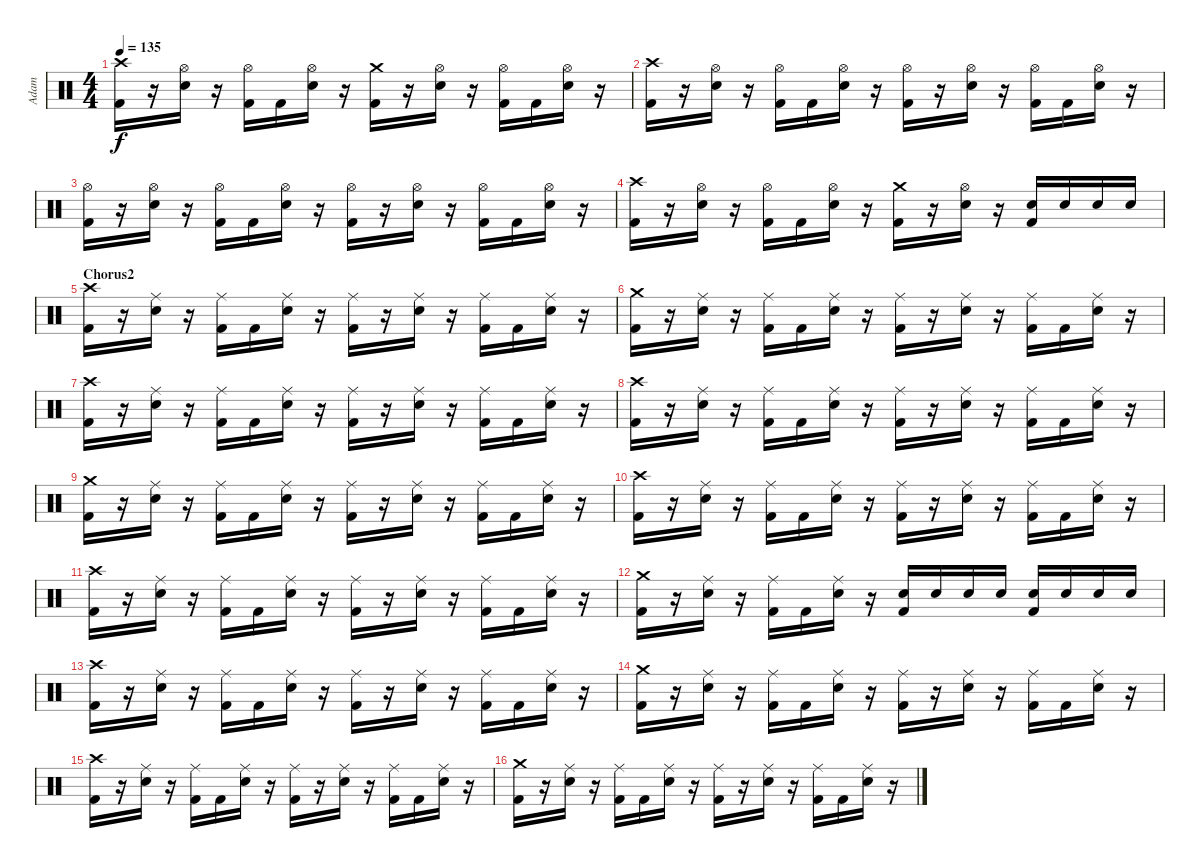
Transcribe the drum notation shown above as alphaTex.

\track ("Adam" "Adam") {instrument percussion}
\staff {score}
\articulation defaults
\ts (4 4)
\tempo 135
\clef neutral
\ks c
("Crash high (hit)" "Kick (hit) 2").16{dy f} r.16 ("Hi-Hat (open)" "Electric Snare (hit)").16 r.16 ("Hi-Hat (open)" "Kick (hit) 2").16 "Kick (hit) 2".16 ("Hi-Hat (open)" "Electric Snare (hit)").16 r.16 ("Crash medium (hit)" "Kick (hit) 2").16 r.16 ("Hi-Hat (open)" "Electric Snare (hit)").16 r.16 ("Hi-Hat (open)" "Kick (hit) 2").16 "Kick (hit) 2".16 ("Hi-Hat (open)" "Electric Snare (hit)").16 r.16 |
("Crash high (hit)" "Kick (hit) 2").16 r.16 ("Hi-Hat (open)" "Electric Snare (hit)").16 r.16 ("Hi-Hat (open)" "Kick (hit) 2").16 "Kick (hit) 2".16 ("Hi-Hat (open)" "Electric Snare (hit)").16 r.16 ("Hi-Hat (open)" "Kick (hit) 2").16 r.16 ("Hi-Hat (open)" "Electric Snare (hit)").16 r.16 ("Hi-Hat (open)" "Kick (hit) 2").16 "Kick (hit) 2".16 ("Hi-Hat (open)" "Electric Snare (hit)").16 r.16 |
("Hi-Hat (open)" "Kick (hit) 2").16 r.16 ("Hi-Hat (open)" "Electric Snare (hit)").16 r.16 ("Hi-Hat (open)" "Kick (hit) 2").16 "Kick (hit) 2".16 ("Hi-Hat (open)" "Electric Snare (hit)").16 r.16 ("Hi-Hat (open)" "Kick (hit) 2").16 r.16 ("Hi-Hat (open)" "Electric Snare (hit)").16 r.16 ("Hi-Hat (open)" "Kick (hit) 2").16 "Kick (hit) 2".16 ("Hi-Hat (open)" "Electric Snare (hit)").16 r.16 |
("Crash high (hit)" "Kick (hit) 2").16 r.16 ("Hi-Hat (open)" "Electric Snare (hit)").16 r.16 ("Hi-Hat (open)" "Kick (hit) 2").16 "Kick (hit) 2".16 ("Hi-Hat (open)" "Electric Snare (hit)").16 r.16 ("Crash medium (hit)" "Kick (hit) 2").16 r.16 ("Hi-Hat (open)" "Electric Snare (hit)").16 r.16 ("Electric Snare (hit)" "Kick (hit) 2").16 "Electric Snare (hit)".16 "Electric Snare (hit)".16 "Electric Snare (hit)".16 |
\section ("" "Chorus2")
("Crash high (hit)" "Kick (hit) 2").16 r.16 ("Ride (middle)" "Electric Snare (hit)").16 r.16 ("Ride (middle)" "Kick (hit) 2").16 "Kick (hit) 2".16 ("Ride (middle)" "Electric Snare (hit)").16 r.16 ("Ride (middle)" "Kick (hit) 2").16 r.16 ("Ride (middle)" "Electric Snare (hit)").16 r.16 ("Ride (middle)" "Kick (hit) 2").16 "Kick (hit) 2".16 ("Ride (middle)" "Electric Snare (hit)").16 r.16 |
("Crash medium (hit)" "Kick (hit) 2").16 r.16 ("Ride (middle)" "Electric Snare (hit)").16 r.16 ("Ride (middle)" "Kick (hit) 2").16 "Kick (hit) 2".16 ("Ride (middle)" "Electric Snare (hit)").16 r.16 ("Ride (middle)" "Kick (hit) 2").16 r.16 ("Ride (middle)" "Electric Snare (hit)").16 r.16 ("Ride (middle)" "Kick (hit) 2").16 "Kick (hit) 2".16 ("Ride (middle)" "Electric Snare (hit)").16 r.16 |
("Crash high (hit)" "Kick (hit) 2").16 r.16 ("Ride (middle)" "Electric Snare (hit)").16 r.16 ("Ride (middle)" "Kick (hit) 2").16 "Kick (hit) 2".16 ("Ride (middle)" "Electric Snare (hit)").16 r.16 ("Ride (middle)" "Kick (hit) 2").16 r.16 ("Ride (middle)" "Electric Snare (hit)").16 r.16 ("Ride (middle)" "Kick (hit) 2").16 "Kick (hit) 2".16 ("Ride (middle)" "Electric Snare (hit)").16 r.16 |
("Crash high (hit)" "Kick (hit) 2").16 r.16 ("Ride (middle)" "Electric Snare (hit)").16 r.16 ("Ride (middle)" "Kick (hit) 2").16 "Kick (hit) 2".16 ("Ride (middle)" "Electric Snare (hit)").16 r.16 ("Ride (middle)" "Kick (hit) 2").16 r.16 ("Ride (middle)" "Electric Snare (hit)").16 r.16 ("Ride (middle)" "Kick (hit) 2").16 "Kick (hit) 2".16 ("Ride (middle)" "Electric Snare (hit)").16 r.16 |
("Crash medium (hit)" "Kick (hit) 2").16 r.16 ("Ride (middle)" "Electric Snare (hit)").16 r.16 ("Ride (middle)" "Kick (hit) 2").16 "Kick (hit) 2".16 ("Ride (middle)" "Electric Snare (hit)").16 r.16 ("Ride (middle)" "Kick (hit) 2").16 r.16 ("Ride (middle)" "Electric Snare (hit)").16 r.16 ("Ride (middle)" "Kick (hit) 2").16 "Kick (hit) 2".16 ("Ride (middle)" "Electric Snare (hit)").16 r.16 |
("Crash high (hit)" "Kick (hit) 2").16 r.16 ("Ride (middle)" "Electric Snare (hit)").16 r.16 ("Ride (middle)" "Kick (hit) 2").16 "Kick (hit) 2".16 ("Ride (middle)" "Electric Snare (hit)").16 r.16 ("Ride (middle)" "Kick (hit) 2").16 r.16 ("Ride (middle)" "Electric Snare (hit)").16 r.16 ("Ride (middle)" "Kick (hit) 2").16 "Kick (hit) 2".16 ("Ride (middle)" "Electric Snare (hit)").16 r.16 |
("Crash high (hit)" "Kick (hit) 2").16 r.16 ("Ride (middle)" "Electric Snare (hit)").16 r.16 ("Ride (middle)" "Kick (hit) 2").16 "Kick (hit) 2".16 ("Ride (middle)" "Electric Snare (hit)").16 r.16 ("Ride (middle)" "Kick (hit) 2").16 r.16 ("Ride (middle)" "Electric Snare (hit)").16 r.16 ("Ride (middle)" "Kick (hit) 2").16 "Kick (hit) 2".16 ("Ride (middle)" "Electric Snare (hit)").16 r.16 |
("Crash medium (hit)" "Kick (hit) 2").16 r.16 ("Ride (middle)" "Electric Snare (hit)").16 r.16 ("Ride (middle)" "Kick (hit) 2").16 "Kick (hit) 2".16 ("Ride (middle)" "Electric Snare (hit)").16 r.16 ("Electric Snare (hit)" "Kick (hit) 2").16 "Electric Snare (hit)".16 "Electric Snare (hit)".16 "Electric Snare (hit)".16 ("Electric Snare (hit)" "Kick (hit) 2").16 "Electric Snare (hit)".16 "Electric Snare (hit)".16 "Electric Snare (hit)".16 |
("Crash high (hit)" "Kick (hit) 2").16 r.16 ("Ride (middle)" "Electric Snare (hit)").16 r.16 ("Ride (middle)" "Kick (hit) 2").16 "Kick (hit) 2".16 ("Ride (middle)" "Electric Snare (hit)").16 r.16 ("Ride (middle)" "Kick (hit) 2").16 r.16 ("Ride (middle)" "Electric Snare (hit)").16 r.16 ("Ride (middle)" "Kick (hit) 2").16 "Kick (hit) 2".16 ("Ride (middle)" "Electric Snare (hit)").16 r.16 |
("Crash medium (hit)" "Kick (hit) 2").16 r.16 ("Ride (middle)" "Electric Snare (hit)").16 r.16 ("Ride (middle)" "Kick (hit) 2").16 "Kick (hit) 2".16 ("Ride (middle)" "Electric Snare (hit)").16 r.16 ("Ride (middle)" "Kick (hit) 2").16 r.16 ("Ride (middle)" "Electric Snare (hit)").16 r.16 ("Ride (middle)" "Kick (hit) 2").16 "Kick (hit) 2".16 ("Ride (middle)" "Electric Snare (hit)").16 r.16 |
("Crash high (hit)" "Kick (hit) 2").16 r.16 ("Ride (middle)" "Electric Snare (hit)").16 r.16 ("Ride (middle)" "Kick (hit) 2").16 "Kick (hit) 2".16 ("Ride (middle)" "Electric Snare (hit)").16 r.16 ("Ride (middle)" "Kick (hit) 2").16 r.16 ("Ride (middle)" "Electric Snare (hit)").16 r.16 ("Ride (middle)" "Kick (hit) 2").16 "Kick (hit) 2".16 ("Ride (middle)" "Electric Snare (hit)").16 r.16 |
("Crash medium (hit)" "Kick (hit) 2").16 r.16 ("Ride (middle)" "Electric Snare (hit)").16 r.16 ("Ride (middle)" "Kick (hit) 2").16 "Kick (hit) 2".16 ("Ride (middle)" "Electric Snare (hit)").16 r.16 ("Ride (middle)" "Kick (hit) 2").16 r.16 ("Ride (middle)" "Electric Snare (hit)").16 r.16 ("Ride (middle)" "Kick (hit) 2").16 "Kick (hit) 2".16 ("Ride (middle)" "Electric Snare (hit)").16 r.16
